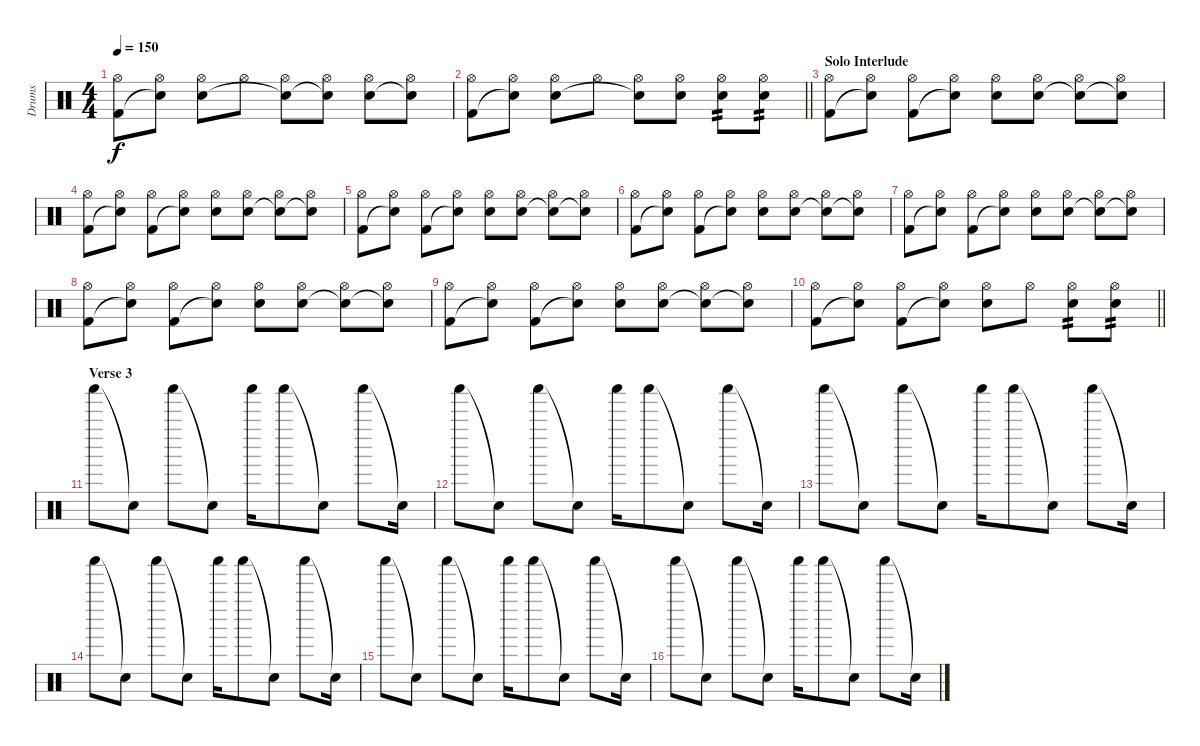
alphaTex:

\track ("Drums" "Drums") {instrument percussion}
\staff {score}
\articulation defaults
\ts (4 4)
\tempo 150
\clef neutral
\ks c
("Hi-Hat (open)" "Kick (hit) 2").8{dy f} ("Hi-Hat (open)" "Snare (hit)"{t}).8 ("Hi-Hat (open)" "Electric Snare (hit)").8 "Hi-Hat (open)".8 ("Hi-Hat (open)" "Snare (hit)"{t}).8 ("Hi-Hat (open)" "Electric Snare (hit)"{t}).8 ("Hi-Hat (open)" "Electric Snare (hit)").8 ("Hi-Hat (open)" "Snare (hit)"{t}).8 |
\barLineRight lightlight
("Hi-Hat (open)" "Kick (hit) 2").8 ("Hi-Hat (open)" "Snare (hit)"{t}).8 ("Hi-Hat (open)" "Electric Snare (hit)").8 "Hi-Hat (open)".8 ("Hi-Hat (open)" "Snare (hit)"{t}).8 ("Hi-Hat (open)" "Electric Snare (hit)").8 ("Hi-Hat (open)" "Electric Snare (hit)").8{tp 2} ("Hi-Hat (open)" "Electric Snare (hit)").8{tp 2} |
\section ("" "Solo Interlude")
("Hi-Hat (open)" "Kick (hit) 2").8 ("Hi-Hat (open)" "Snare (hit)"{t}).8 ("Hi-Hat (open)" "Kick (hit) 2").8 ("Hi-Hat (open)" "Snare (hit)"{t}).8 ("Hi-Hat (open)" "Electric Snare (hit)").8 ("Hi-Hat (open)" "Electric Snare (hit)").8 ("Hi-Hat (open)" "Snare (hit)"{t}).8 ("Hi-Hat (open)" "Snare (hit)"{t}).8 |
("Hi-Hat (open)" "Kick (hit) 2").8 ("Hi-Hat (open)" "Snare (hit)"{t}).8 ("Hi-Hat (open)" "Kick (hit) 2").8 ("Hi-Hat (open)" "Snare (hit)"{t}).8 ("Hi-Hat (open)" "Electric Snare (hit)").8 ("Hi-Hat (open)" "Electric Snare (hit)").8 ("Hi-Hat (open)" "Snare (hit)"{t}).8 ("Hi-Hat (open)" "Snare (hit)"{t}).8 |
("Hi-Hat (open)" "Kick (hit) 2").8 ("Hi-Hat (open)" "Snare (hit)"{t}).8 ("Hi-Hat (open)" "Kick (hit) 2").8 ("Hi-Hat (open)" "Snare (hit)"{t}).8 ("Hi-Hat (open)" "Electric Snare (hit)").8 ("Hi-Hat (open)" "Electric Snare (hit)").8 ("Hi-Hat (open)" "Snare (hit)"{t}).8 ("Hi-Hat (open)" "Snare (hit)"{t}).8 |
("Hi-Hat (open)" "Kick (hit) 2").8 ("Hi-Hat (open)" "Snare (hit)"{t}).8 ("Hi-Hat (open)" "Kick (hit) 2").8 ("Hi-Hat (open)" "Snare (hit)"{t}).8 ("Hi-Hat (open)" "Electric Snare (hit)").8 ("Hi-Hat (open)" "Electric Snare (hit)").8 ("Hi-Hat (open)" "Snare (hit)"{t}).8 ("Hi-Hat (open)" "Snare (hit)"{t}).8 |
("Hi-Hat (open)" "Kick (hit) 2").8 ("Hi-Hat (open)" "Snare (hit)"{t}).8 ("Hi-Hat (open)" "Kick (hit) 2").8 ("Hi-Hat (open)" "Snare (hit)"{t}).8 ("Hi-Hat (open)" "Electric Snare (hit)").8 ("Hi-Hat (open)" "Electric Snare (hit)").8 ("Hi-Hat (open)" "Snare (hit)"{t}).8 ("Hi-Hat (open)" "Snare (hit)"{t}).8 |
("Hi-Hat (open)" "Kick (hit) 2").8 ("Hi-Hat (open)" "Snare (hit)"{t}).8 ("Hi-Hat (open)" "Kick (hit) 2").8 ("Hi-Hat (open)" "Snare (hit)"{t}).8 ("Hi-Hat (open)" "Electric Snare (hit)").8 ("Hi-Hat (open)" "Electric Snare (hit)").8 ("Hi-Hat (open)" "Snare (hit)"{t}).8 ("Hi-Hat (open)" "Snare (hit)"{t}).8 |
("Hi-Hat (open)" "Kick (hit) 2").8 ("Hi-Hat (open)" "Snare (hit)"{t}).8 ("Hi-Hat (open)" "Kick (hit) 2").8 ("Hi-Hat (open)" "Snare (hit)"{t}).8 ("Hi-Hat (open)" "Electric Snare (hit)").8 ("Hi-Hat (open)" "Electric Snare (hit)").8 ("Hi-Hat (open)" "Snare (hit)"{t}).8 ("Hi-Hat (open)" "Snare (hit)"{t}).8 |
\barLineRight lightlight
("Hi-Hat (open)" "Kick (hit) 2").8 ("Hi-Hat (open)" "Snare (hit)"{t}).8 ("Hi-Hat (open)" "Kick (hit) 2").8 ("Hi-Hat (open)" "Snare (hit)"{t}).8 ("Hi-Hat (open)" "Electric Snare (hit)").8 "Hi-Hat (open)".8 ("Hi-Hat (open)" "Electric Snare (hit)").8{tp 2} ("Hi-Hat (open)" "Electric Snare (hit)").8{tp 2} |
\section ("" "Verse 3")
"Shaker (hit)".8 "Snare (hit)"{t}.8 "Shaker (hit)".8 "Snare (hit)"{t}.8 "Shaker (hit)".16 "Shaker (hit)".8 "Snare (hit)"{t}.8 "Shaker (hit)".8 "Snare (hit)"{t}.16 |
"Shaker (hit)".8 "Snare (hit)"{t}.8 "Shaker (hit)".8 "Snare (hit)"{t}.8 "Shaker (hit)".16 "Shaker (hit)".8 "Snare (hit)"{t}.8 "Shaker (hit)".8 "Snare (hit)"{t}.16 |
"Shaker (hit)".8 "Snare (hit)"{t}.8 "Shaker (hit)".8 "Snare (hit)"{t}.8 "Shaker (hit)".16 "Shaker (hit)".8 "Snare (hit)"{t}.8 "Shaker (hit)".8 "Snare (hit)"{t}.16 |
"Shaker (hit)".8 "Snare (hit)"{t}.8 "Shaker (hit)".8 "Snare (hit)"{t}.8 "Shaker (hit)".16 "Shaker (hit)".8 "Snare (hit)"{t}.8 "Shaker (hit)".8 "Snare (hit)"{t}.16 |
"Shaker (hit)".8 "Snare (hit)"{t}.8 "Shaker (hit)".8 "Snare (hit)"{t}.8 "Shaker (hit)".16 "Shaker (hit)".8 "Snare (hit)"{t}.8 "Shaker (hit)".8 "Snare (hit)"{t}.16 |
"Shaker (hit)".8 "Snare (hit)"{t}.8 "Shaker (hit)".8 "Snare (hit)"{t}.8 "Shaker (hit)".16 "Shaker (hit)".8 "Snare (hit)"{t}.8 "Shaker (hit)".8 "Snare (hit)"{t}.16
